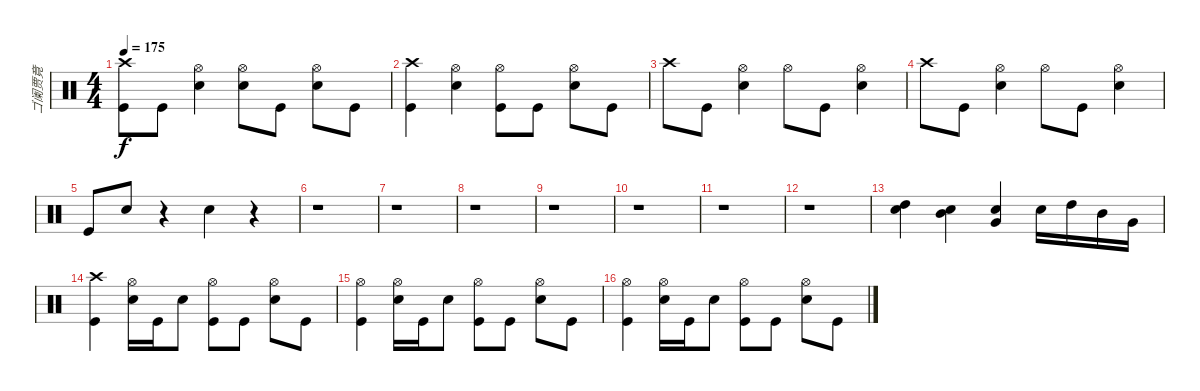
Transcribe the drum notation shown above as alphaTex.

\track ("ゴ阑贾竟" "ゴ阑贾竟") {instrument percussion}
\staff {score}
\articulation defaults
\ts (4 4)
\tempo 175
\clef neutral
\ks c
("Kick (hit)" "Crash high (hit)").8{dy f} "Kick (hit)".8 ("Snare (hit) 2" "Hi-Hat (open)").4 ("Snare (hit) 2" "Hi-Hat (open)").8 "Kick (hit)".8 ("Snare (hit) 2" "Hi-Hat (open)").8 "Kick (hit)".8 |
("Kick (hit)" "Crash high (hit)").4 ("Snare (hit) 2" "Hi-Hat (open)").4 ("Kick (hit)" "Hi-Hat (open)").8 "Kick (hit)".8 ("Hi-Hat (open)" "Snare (hit) 2").8 "Kick (hit)".8 |
"Crash high (hit)".8 "Kick (hit)".8 ("Hi-Hat (open)" "Snare (hit) 2").4 "Hi-Hat (open)".8 "Kick (hit)".8 ("Hi-Hat (open)" "Snare (hit) 2").4 |
"Crash high (hit)".8 "Kick (hit)".8 ("Hi-Hat (open)" "Snare (hit) 2").4 "Hi-Hat (open)".8 "Kick (hit)".8 ("Hi-Hat (open)" "Snare (hit) 2").4 |
"Kick (hit)".8 "Snare (hit) 2".8 r.4 "Snare (hit) 2".4 r.4 |
r.1 |
r.1 |
r.1 |
r.1 |
r.1 |
r.1 |
r.1 |
("Snare (hit) 2" "High Tom (hit)").4 ("Mid Tom (hit)" "Snare (hit) 2").4 ("Very Low Tom (hit)" "Snare (hit) 2").4 "Snare (hit) 2".16 "High Tom (hit)".16 "Mid Tom (hit)".16 "Very Low Tom (hit)".16 |
("Crash high (hit)" "Kick (hit)").4 ("Snare (hit) 2" "Hi-Hat (open)").16 "Kick (hit)".16 "Snare (hit) 2".8 ("Kick (hit)" "Hi-Hat (open)").8 "Kick (hit)".8 ("Snare (hit) 2" "Hi-Hat (open)").8 "Kick (hit)".8 |
("Hi-Hat (open)" "Kick (hit)").4 ("Snare (hit) 2" "Hi-Hat (open)").16 "Kick (hit)".16 "Snare (hit) 2".8 ("Kick (hit)" "Hi-Hat (open)").8 "Kick (hit)".8 ("Snare (hit) 2" "Hi-Hat (open)").8 "Kick (hit)".8 |
("Hi-Hat (open)" "Kick (hit)").4 ("Snare (hit) 2" "Hi-Hat (open)").16 "Kick (hit)".16 "Snare (hit) 2".8 ("Kick (hit)" "Hi-Hat (open)").8 "Kick (hit)".8 ("Snare (hit) 2" "Hi-Hat (open)").8 "Kick (hit)".8
